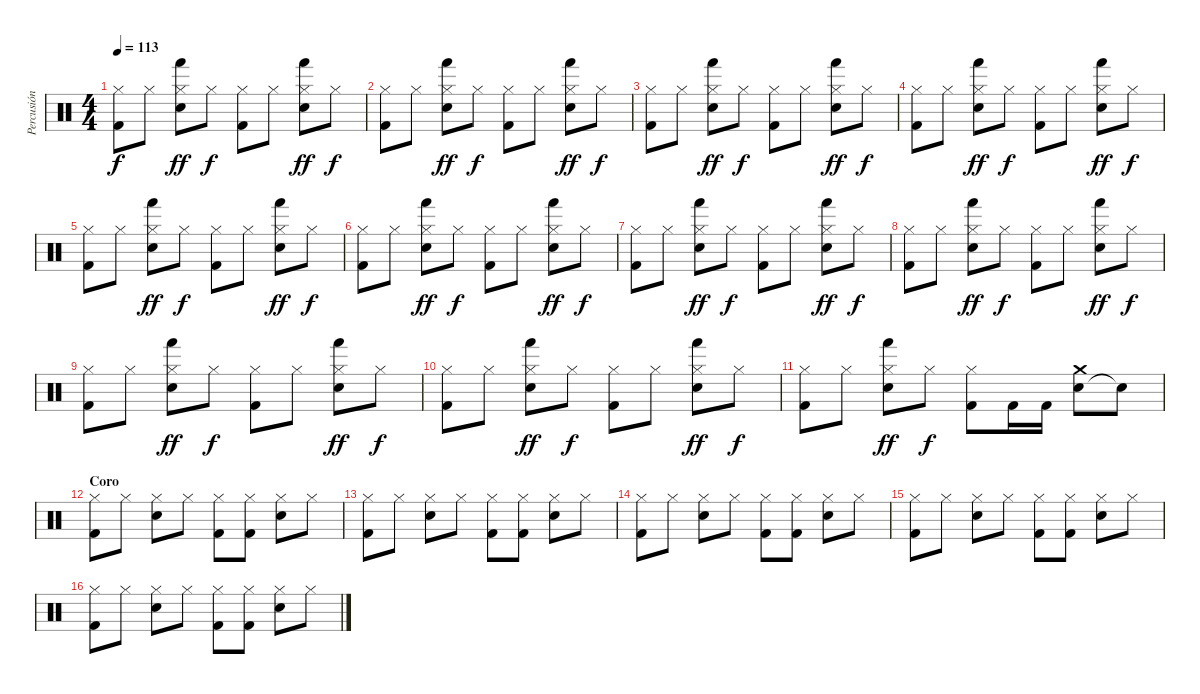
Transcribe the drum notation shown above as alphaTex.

\track ("Percusión" "Percusión") {instrument percussion}
\staff {score}
\articulation defaults
\ts (4 4)
\tempo 113
\clef neutral
\ks c
("Kick (hit) 2" "Hi-Hat (closed)").8{dy f} "Hi-Hat (closed)".8 ("Electric Snare (hit)" "Hi-Hat (closed)" "Hand (hit)").8{dy ff} "Hi-Hat (closed)".8{dy f} ("Kick (hit) 2" "Hi-Hat (closed)").8 "Hi-Hat (closed)".8 ("Electric Snare (hit)" "Hi-Hat (closed)" "Hand (hit)").8{dy ff} "Hi-Hat (closed)".8{dy f} |
("Kick (hit) 2" "Hi-Hat (closed)").8 "Hi-Hat (closed)".8 ("Electric Snare (hit)" "Hi-Hat (closed)" "Hand (hit)").8{dy ff} "Hi-Hat (closed)".8{dy f} ("Kick (hit) 2" "Hi-Hat (closed)").8 "Hi-Hat (closed)".8 ("Electric Snare (hit)" "Hi-Hat (closed)" "Hand (hit)").8{dy ff} "Hi-Hat (closed)".8{dy f} |
("Kick (hit) 2" "Hi-Hat (closed)").8 "Hi-Hat (closed)".8 ("Electric Snare (hit)" "Hi-Hat (closed)" "Hand (hit)").8{dy ff} "Hi-Hat (closed)".8{dy f} ("Kick (hit) 2" "Hi-Hat (closed)").8 "Hi-Hat (closed)".8 ("Electric Snare (hit)" "Hi-Hat (closed)" "Hand (hit)").8{dy ff} "Hi-Hat (closed)".8{dy f} |
("Kick (hit) 2" "Hi-Hat (closed)").8 "Hi-Hat (closed)".8 ("Electric Snare (hit)" "Hi-Hat (closed)" "Hand (hit)").8{dy ff} "Hi-Hat (closed)".8{dy f} ("Kick (hit) 2" "Hi-Hat (closed)").8 "Hi-Hat (closed)".8 ("Electric Snare (hit)" "Hi-Hat (closed)" "Hand (hit)").8{dy ff} "Hi-Hat (closed)".8{dy f} |
("Kick (hit) 2" "Hi-Hat (closed)").8 "Hi-Hat (closed)".8 ("Electric Snare (hit)" "Hi-Hat (closed)" "Hand (hit)").8{dy ff} "Hi-Hat (closed)".8{dy f} ("Kick (hit) 2" "Hi-Hat (closed)").8 "Hi-Hat (closed)".8 ("Electric Snare (hit)" "Hi-Hat (closed)" "Hand (hit)").8{dy ff} "Hi-Hat (closed)".8{dy f} |
("Kick (hit) 2" "Hi-Hat (closed)").8 "Hi-Hat (closed)".8 ("Electric Snare (hit)" "Hi-Hat (closed)" "Hand (hit)").8{dy ff} "Hi-Hat (closed)".8{dy f} ("Kick (hit) 2" "Hi-Hat (closed)").8 "Hi-Hat (closed)".8 ("Electric Snare (hit)" "Hi-Hat (closed)" "Hand (hit)").8{dy ff} "Hi-Hat (closed)".8{dy f} |
("Kick (hit) 2" "Hi-Hat (closed)").8 "Hi-Hat (closed)".8 ("Electric Snare (hit)" "Hi-Hat (closed)" "Hand (hit)").8{dy ff} "Hi-Hat (closed)".8{dy f} ("Kick (hit) 2" "Hi-Hat (closed)").8 "Hi-Hat (closed)".8 ("Electric Snare (hit)" "Hi-Hat (closed)" "Hand (hit)").8{dy ff} "Hi-Hat (closed)".8{dy f} |
("Kick (hit) 2" "Hi-Hat (closed)").8 "Hi-Hat (closed)".8 ("Electric Snare (hit)" "Hi-Hat (closed)" "Hand (hit)").8{dy ff} "Hi-Hat (closed)".8{dy f} ("Kick (hit) 2" "Hi-Hat (closed)").8 "Hi-Hat (closed)".8 ("Electric Snare (hit)" "Hi-Hat (closed)" "Hand (hit)").8{dy ff} "Hi-Hat (closed)".8{dy f} |
("Kick (hit) 2" "Hi-Hat (closed)").8 "Hi-Hat (closed)".8 ("Electric Snare (hit)" "Hi-Hat (closed)" "Hand (hit)").8{dy ff} "Hi-Hat (closed)".8{dy f} ("Kick (hit) 2" "Hi-Hat (closed)").8 "Hi-Hat (closed)".8 ("Electric Snare (hit)" "Hi-Hat (closed)" "Hand (hit)").8{dy ff} "Hi-Hat (closed)".8{dy f} |
("Kick (hit) 2" "Hi-Hat (closed)").8 "Hi-Hat (closed)".8 ("Electric Snare (hit)" "Hi-Hat (closed)" "Hand (hit)").8{dy ff} "Hi-Hat (closed)".8{dy f} ("Kick (hit) 2" "Hi-Hat (closed)").8 "Hi-Hat (closed)".8 ("Electric Snare (hit)" "Hi-Hat (closed)" "Hand (hit)").8{dy ff} "Hi-Hat (closed)".8{dy f} |
("Kick (hit) 2" "Hi-Hat (closed)").8 "Hi-Hat (closed)".8 ("Electric Snare (hit)" "Hi-Hat (closed)" "Hand (hit)").8{dy ff} "Hi-Hat (closed)".8{dy f} ("Kick (hit) 2" "Hi-Hat (closed)").8 "Kick (hit) 2".16 "Kick (hit) 2".16 ("Electric Snare (hit)" "Crash medium (hit)").8 "Snare (hit)"{t}.8 |
\section ("" "Coro")
("Kick (hit) 2" "Hi-Hat (closed)").8 "Hi-Hat (closed)".8 ("Electric Snare (hit)" "Hi-Hat (closed)").8 "Hi-Hat (closed)".8 ("Kick (hit) 2" "Hi-Hat (closed)").8 ("Kick (hit) 2" "Hi-Hat (closed)").8 ("Electric Snare (hit)" "Hi-Hat (closed)").8 "Hi-Hat (closed)".8 |
("Kick (hit) 2" "Hi-Hat (closed)").8 "Hi-Hat (closed)".8 ("Electric Snare (hit)" "Hi-Hat (closed)").8 "Hi-Hat (closed)".8 ("Kick (hit) 2" "Hi-Hat (closed)").8 ("Kick (hit) 2" "Hi-Hat (closed)").8 ("Electric Snare (hit)" "Hi-Hat (closed)").8 "Hi-Hat (closed)".8 |
("Kick (hit) 2" "Hi-Hat (closed)").8 "Hi-Hat (closed)".8 ("Electric Snare (hit)" "Hi-Hat (closed)").8 "Hi-Hat (closed)".8 ("Kick (hit) 2" "Hi-Hat (closed)").8 ("Kick (hit) 2" "Hi-Hat (closed)").8 ("Electric Snare (hit)" "Hi-Hat (closed)").8 "Hi-Hat (closed)".8 |
("Kick (hit) 2" "Hi-Hat (closed)").8 "Hi-Hat (closed)".8 ("Electric Snare (hit)" "Hi-Hat (closed)").8 "Hi-Hat (closed)".8 ("Kick (hit) 2" "Hi-Hat (closed)").8 ("Kick (hit) 2" "Hi-Hat (closed)").8 ("Electric Snare (hit)" "Hi-Hat (closed)").8 "Hi-Hat (closed)".8 |
("Kick (hit) 2" "Hi-Hat (closed)").8 "Hi-Hat (closed)".8 ("Electric Snare (hit)" "Hi-Hat (closed)").8 "Hi-Hat (closed)".8 ("Kick (hit) 2" "Hi-Hat (closed)").8 ("Kick (hit) 2" "Hi-Hat (closed)").8 ("Electric Snare (hit)" "Hi-Hat (closed)").8 "Hi-Hat (closed)".8
